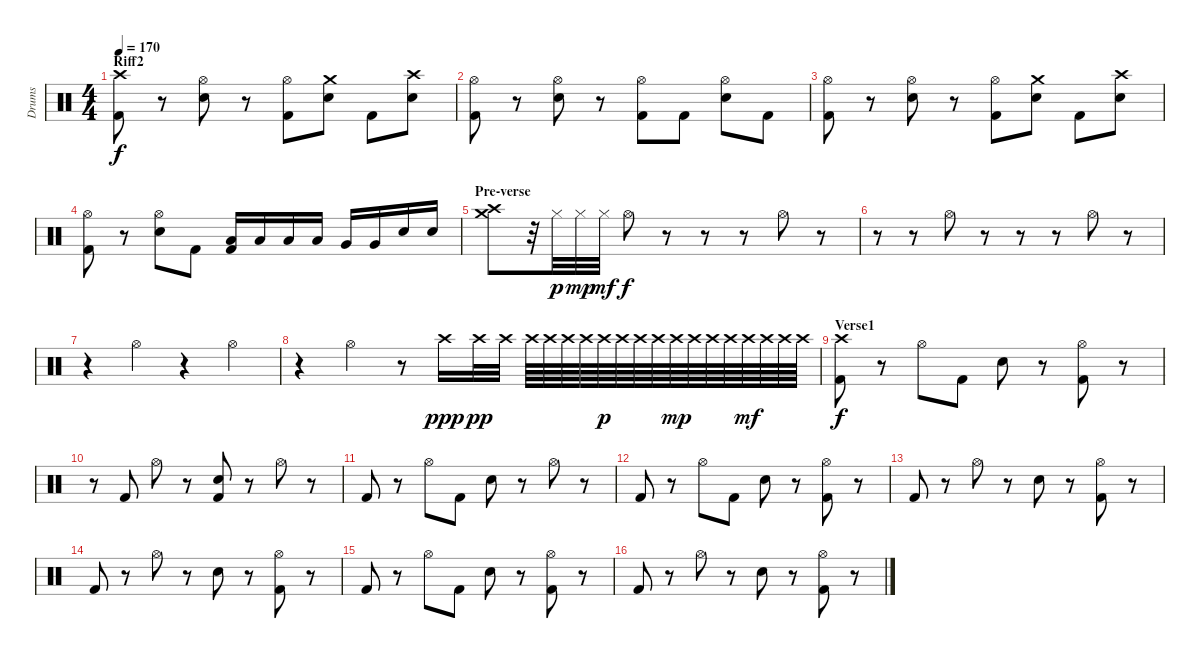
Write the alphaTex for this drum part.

\track ("Drums" "Drums") {instrument percussion}
\staff {score}
\articulation defaults
\ts (4 4)
\section ("" "Riff2")
\tempo 170
\clef neutral
\ks c
("Kick (hit) 2" "Crash high (hit)").8{dy f} r.8 ("Hi-Hat (open)" "Electric Snare (hit)").8 r.8 ("Kick (hit) 2" "Hi-Hat (open)").8 ("Electric Snare (hit)" "Crash medium (hit)").8 "Kick (hit) 2".8 ("Electric Snare (hit)" "Crash high (hit)").8 |
("Kick (hit) 2" "Hi-Hat (open)").8 r.8 ("Hi-Hat (open)" "Electric Snare (hit)").8 r.8 ("Kick (hit) 2" "Hi-Hat (open)").8 "Kick (hit) 2".8 ("Hi-Hat (open)" "Electric Snare (hit)").8 "Kick (hit) 2".8 |
("Kick (hit) 2" "Hi-Hat (open)").8 r.8 ("Hi-Hat (open)" "Electric Snare (hit)").8 r.8 ("Kick (hit) 2" "Hi-Hat (open)").8 ("Electric Snare (hit)" "Crash medium (hit)").8 "Kick (hit) 2".8 ("Electric Snare (hit)" "Crash high (hit)").8 |
("Kick (hit) 2" "Hi-Hat (open)").8 r.8 ("Hi-Hat (open)" "Electric Snare (hit)").8 "Kick (hit) 2".8 ("Kick (hit) 2" "Low Tom (hit)").16 "Low Tom (hit)".16 "Low Tom (hit)".16 "Low Tom (hit)".16 "Very Low Tom (hit)".16 "Very Low Tom (hit)".16 "Electric Snare (hit)".16 "Electric Snare (hit)".16 |
\section ("" "Pre-verse")
("Crash medium (hit)" "Crash high (hit)").8 r.32 "Hi-Hat (closed)".32{dy p} "Hi-Hat (closed)".32{dy mp} "Hi-Hat (closed)".32{dy mf} "Hi-Hat (open)".8{dy f} r.8 r.8 r.8 "Hi-Hat (open)".8 r.8 |
r.8 r.8 "Hi-Hat (open)".8 r.8 r.8 r.8 "Hi-Hat (open)".8 r.8 |
r.4 "Hi-Hat (open)".4 r.4 "Hi-Hat (open)".4 |
r.4 "Hi-Hat (open)".4 r.8 "Crash high (hit)".16{dy ppp} "Crash high (hit)".32{dy pp} "Crash high (hit)".32 "Crash high (hit)".64 "Crash high (hit)".64 "Crash high (hit)".64 "Crash high (hit)".64 "Crash high (hit)".64{dy p} "Crash high (hit)".64 "Crash high (hit)".64 "Crash high (hit)".64 "Crash high (hit)".64{dy mp} "Crash high (hit)".64 "Crash high (hit)".64 "Crash high (hit)".64 "Crash high (hit)".64{dy mf} "Crash high (hit)".64 "Crash high (hit)".64 "Crash high (hit)".64 |
\section ("" "Verse1")
("Kick (hit) 2" "Crash high (hit)").8{dy f} r.8 "Hi-Hat (open)".8 "Kick (hit) 2".8 "Electric Snare (hit)".8 r.8 ("Kick (hit) 2" "Hi-Hat (open)").8 r.8 |
r.8 "Kick (hit) 2".8 "Hi-Hat (open)".8 r.8 ("Kick (hit) 2" "Electric Snare (hit)").8 r.8 "Hi-Hat (open)".8 r.8 |
"Kick (hit) 2".8 r.8 "Hi-Hat (open)".8 "Kick (hit) 2".8 "Electric Snare (hit)".8 r.8 "Hi-Hat (open)".8 r.8 |
"Kick (hit) 2".8 r.8 "Hi-Hat (open)".8 "Kick (hit) 2".8 "Electric Snare (hit)".8 r.8 ("Kick (hit) 2" "Hi-Hat (open)").8 r.8 |
"Kick (hit) 2".8 r.8 "Hi-Hat (open)".8 r.8 "Electric Snare (hit)".8 r.8 ("Kick (hit) 2" "Hi-Hat (open)").8 r.8 |
"Kick (hit) 2".8 r.8 "Hi-Hat (open)".8 r.8 "Electric Snare (hit)".8 r.8 ("Kick (hit) 2" "Hi-Hat (open)").8 r.8 |
"Kick (hit) 2".8 r.8 "Hi-Hat (open)".8 "Kick (hit) 2".8 "Electric Snare (hit)".8 r.8 ("Kick (hit) 2" "Hi-Hat (open)").8 r.8 |
"Kick (hit) 2".8 r.8 "Hi-Hat (open)".8 r.8 "Electric Snare (hit)".8 r.8 ("Kick (hit) 2" "Hi-Hat (open)").8 r.8
